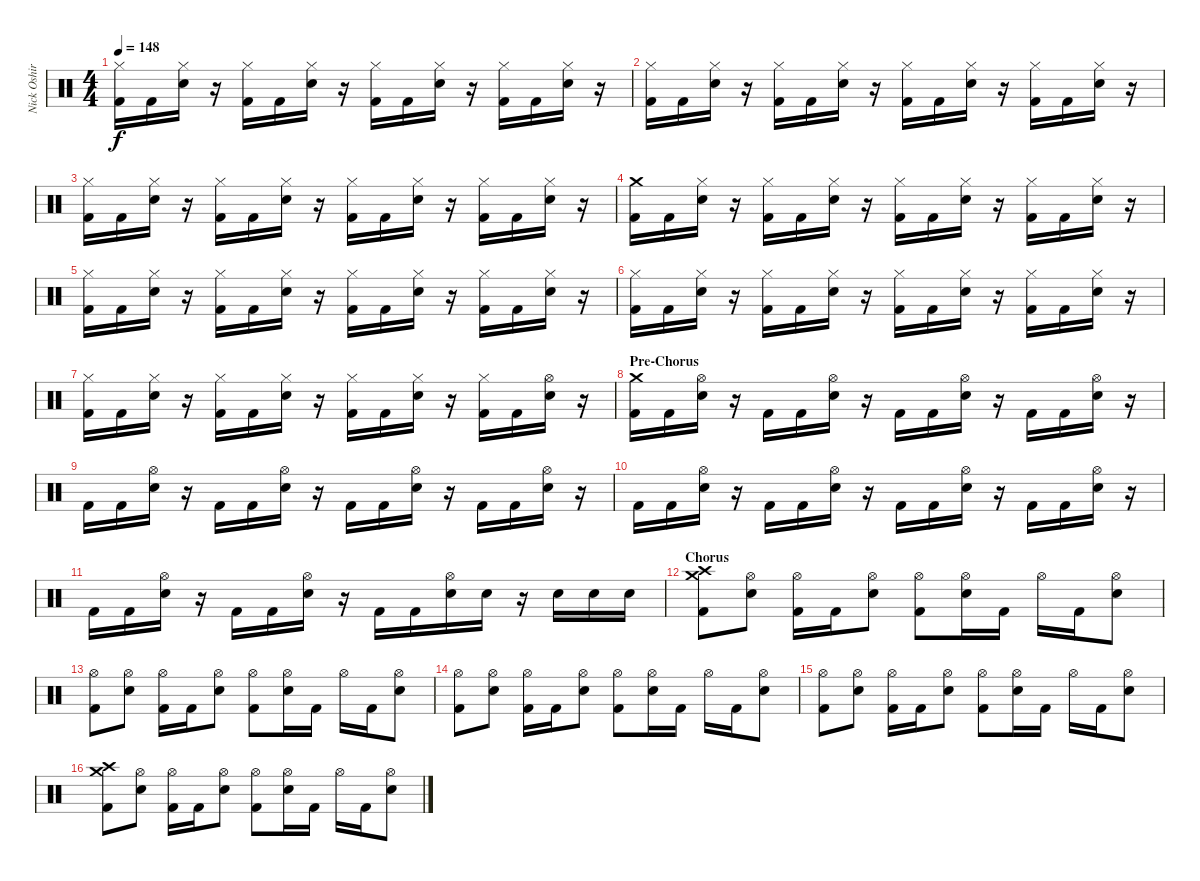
\track ("Nick Oshiro - Drums" "Nick Oshir") {instrument percussion}
\staff {score}
\articulation defaults
\ts (4 4)
\tempo 148
\clef neutral
\ks c
("Hi-Hat (closed)" "Kick (hit) 2").16{dy f} "Kick (hit) 2".16 ("Hi-Hat (closed)" "Electric Snare (hit)").16 r.16 ("Hi-Hat (closed)" "Kick (hit) 2").16 "Kick (hit) 2".16 ("Hi-Hat (closed)" "Electric Snare (hit)").16 r.16 ("Hi-Hat (closed)" "Kick (hit) 2").16 "Kick (hit) 2".16 ("Hi-Hat (closed)" "Electric Snare (hit)").16 r.16 ("Hi-Hat (closed)" "Kick (hit) 2").16 "Kick (hit) 2".16 ("Hi-Hat (closed)" "Electric Snare (hit)").16 r.16 |
("Hi-Hat (closed)" "Kick (hit) 2").16 "Kick (hit) 2".16 ("Hi-Hat (closed)" "Electric Snare (hit)").16 r.16 ("Hi-Hat (closed)" "Kick (hit) 2").16 "Kick (hit) 2".16 ("Hi-Hat (closed)" "Electric Snare (hit)").16 r.16 ("Hi-Hat (closed)" "Kick (hit) 2").16 "Kick (hit) 2".16 ("Hi-Hat (closed)" "Electric Snare (hit)").16 r.16 ("Hi-Hat (closed)" "Kick (hit) 2").16 "Kick (hit) 2".16 ("Hi-Hat (closed)" "Electric Snare (hit)").16 r.16 |
("Hi-Hat (closed)" "Kick (hit) 2").16 "Kick (hit) 2".16 ("Hi-Hat (closed)" "Electric Snare (hit)").16 r.16 ("Hi-Hat (closed)" "Kick (hit) 2").16 "Kick (hit) 2".16 ("Hi-Hat (closed)" "Electric Snare (hit)").16 r.16 ("Hi-Hat (closed)" "Kick (hit) 2").16 "Kick (hit) 2".16 ("Hi-Hat (closed)" "Electric Snare (hit)").16 r.16 ("Hi-Hat (closed)" "Kick (hit) 2").16 "Kick (hit) 2".16 ("Hi-Hat (closed)" "Electric Snare (hit)").16 r.16 |
("Crash medium (hit)" "Kick (hit) 2").16 "Kick (hit) 2".16 ("Hi-Hat (closed)" "Electric Snare (hit)").16 r.16 ("Hi-Hat (closed)" "Kick (hit) 2").16 "Kick (hit) 2".16 ("Hi-Hat (closed)" "Electric Snare (hit)").16 r.16 ("Hi-Hat (closed)" "Kick (hit) 2").16 "Kick (hit) 2".16 ("Hi-Hat (closed)" "Electric Snare (hit)").16 r.16 ("Hi-Hat (closed)" "Kick (hit) 2").16 "Kick (hit) 2".16 ("Hi-Hat (closed)" "Electric Snare (hit)").16 r.16 |
("Hi-Hat (closed)" "Kick (hit) 2").16 "Kick (hit) 2".16 ("Hi-Hat (closed)" "Electric Snare (hit)").16 r.16 ("Hi-Hat (closed)" "Kick (hit) 2").16 "Kick (hit) 2".16 ("Hi-Hat (closed)" "Electric Snare (hit)").16 r.16 ("Hi-Hat (closed)" "Kick (hit) 2").16 "Kick (hit) 2".16 ("Hi-Hat (closed)" "Electric Snare (hit)").16 r.16 ("Hi-Hat (closed)" "Kick (hit) 2").16 "Kick (hit) 2".16 ("Hi-Hat (closed)" "Electric Snare (hit)").16 r.16 |
("Hi-Hat (closed)" "Kick (hit) 2").16 "Kick (hit) 2".16 ("Hi-Hat (closed)" "Electric Snare (hit)").16 r.16 ("Hi-Hat (closed)" "Kick (hit) 2").16 "Kick (hit) 2".16 ("Hi-Hat (closed)" "Electric Snare (hit)").16 r.16 ("Hi-Hat (closed)" "Kick (hit) 2").16 "Kick (hit) 2".16 ("Hi-Hat (closed)" "Electric Snare (hit)").16 r.16 ("Hi-Hat (closed)" "Kick (hit) 2").16 "Kick (hit) 2".16 ("Hi-Hat (closed)" "Electric Snare (hit)").16 r.16 |
("Hi-Hat (closed)" "Kick (hit) 2").16 "Kick (hit) 2".16 ("Hi-Hat (closed)" "Electric Snare (hit)").16 r.16 ("Hi-Hat (closed)" "Kick (hit) 2").16 "Kick (hit) 2".16 ("Hi-Hat (closed)" "Electric Snare (hit)").16 r.16 ("Hi-Hat (closed)" "Kick (hit) 2").16 "Kick (hit) 2".16 ("Hi-Hat (closed)" "Electric Snare (hit)").16 r.16 ("Hi-Hat (closed)" "Kick (hit) 2").16 "Kick (hit) 2".16 ("Hi-Hat (open)" "Electric Snare (hit)").16 r.16 |
\section ("" "Pre-Chorus")
("Crash medium (hit)" "Kick (hit) 2").16 "Kick (hit) 2".16 ("Hi-Hat (open)" "Electric Snare (hit)").16 r.16 "Kick (hit) 2".16 "Kick (hit) 2".16 ("Hi-Hat (open)" "Electric Snare (hit)").16 r.16 "Kick (hit) 2".16 "Kick (hit) 2".16 ("Hi-Hat (open)" "Electric Snare (hit)").16 r.16 "Kick (hit) 2".16 "Kick (hit) 2".16 ("Hi-Hat (open)" "Electric Snare (hit)").16 r.16 |
"Kick (hit) 2".16 "Kick (hit) 2".16 ("Hi-Hat (open)" "Electric Snare (hit)").16 r.16 "Kick (hit) 2".16 "Kick (hit) 2".16 ("Hi-Hat (open)" "Electric Snare (hit)").16 r.16 "Kick (hit) 2".16 "Kick (hit) 2".16 ("Hi-Hat (open)" "Electric Snare (hit)").16 r.16 "Kick (hit) 2".16 "Kick (hit) 2".16 ("Hi-Hat (open)" "Electric Snare (hit)").16 r.16 |
"Kick (hit) 2".16 "Kick (hit) 2".16 ("Hi-Hat (open)" "Electric Snare (hit)").16 r.16 "Kick (hit) 2".16 "Kick (hit) 2".16 ("Hi-Hat (open)" "Electric Snare (hit)").16 r.16 "Kick (hit) 2".16 "Kick (hit) 2".16 ("Hi-Hat (open)" "Electric Snare (hit)").16 r.16 "Kick (hit) 2".16 "Kick (hit) 2".16 ("Hi-Hat (open)" "Electric Snare (hit)").16 r.16 |
"Kick (hit) 2".16 "Kick (hit) 2".16 ("Hi-Hat (open)" "Electric Snare (hit)").16 r.16 "Kick (hit) 2".16 "Kick (hit) 2".16 ("Hi-Hat (open)" "Electric Snare (hit)").16 r.16 "Kick (hit) 2".16 "Kick (hit) 2".16 ("Hi-Hat (open)" "Electric Snare (hit)").16 "Electric Snare (hit)".16 r.16 "Electric Snare (hit)".16 "Electric Snare (hit)".16 "Electric Snare (hit)".16 |
\section ("" "Chorus")
("Crash high (hit)" "Crash medium (hit)" "Kick (hit) 2").8 ("Hi-Hat (open)" "Electric Snare (hit)").8 ("Hi-Hat (open)" "Kick (hit) 2").16 "Kick (hit) 2".16 ("Hi-Hat (open)" "Electric Snare (hit)").8 ("Hi-Hat (open)" "Kick (hit) 2").8 ("Hi-Hat (open)" "Electric Snare (hit)").16 "Kick (hit) 2".16 "Hi-Hat (open)".16 "Kick (hit) 2".16 ("Hi-Hat (open)" "Electric Snare (hit)").8 |
("Hi-Hat (open)" "Kick (hit) 2").8 ("Hi-Hat (open)" "Electric Snare (hit)").8 ("Hi-Hat (open)" "Kick (hit) 2").16 "Kick (hit) 2".16 ("Hi-Hat (open)" "Electric Snare (hit)").8 ("Hi-Hat (open)" "Kick (hit) 2").8 ("Hi-Hat (open)" "Electric Snare (hit)").16 "Kick (hit) 2".16 "Hi-Hat (open)".16 "Kick (hit) 2".16 ("Hi-Hat (open)" "Electric Snare (hit)").8 |
("Hi-Hat (open)" "Kick (hit) 2").8 ("Hi-Hat (open)" "Electric Snare (hit)").8 ("Hi-Hat (open)" "Kick (hit) 2").16 "Kick (hit) 2".16 ("Hi-Hat (open)" "Electric Snare (hit)").8 ("Hi-Hat (open)" "Kick (hit) 2").8 ("Hi-Hat (open)" "Electric Snare (hit)").16 "Kick (hit) 2".16 "Hi-Hat (open)".16 "Kick (hit) 2".16 ("Hi-Hat (open)" "Electric Snare (hit)").8 |
("Hi-Hat (open)" "Kick (hit) 2").8 ("Hi-Hat (open)" "Electric Snare (hit)").8 ("Hi-Hat (open)" "Kick (hit) 2").16 "Kick (hit) 2".16 ("Hi-Hat (open)" "Electric Snare (hit)").8 ("Hi-Hat (open)" "Kick (hit) 2").8 ("Hi-Hat (open)" "Electric Snare (hit)").16 "Kick (hit) 2".16 "Hi-Hat (open)".16 "Kick (hit) 2".16 ("Hi-Hat (open)" "Electric Snare (hit)").8 |
("Crash high (hit)" "Crash medium (hit)" "Kick (hit) 2").8 ("Hi-Hat (open)" "Electric Snare (hit)").8 ("Hi-Hat (open)" "Kick (hit) 2").16 "Kick (hit) 2".16 ("Hi-Hat (open)" "Electric Snare (hit)").8 ("Hi-Hat (open)" "Kick (hit) 2").8 ("Hi-Hat (open)" "Electric Snare (hit)").16 "Kick (hit) 2".16 "Hi-Hat (open)".16 "Kick (hit) 2".16 ("Hi-Hat (open)" "Electric Snare (hit)").8
